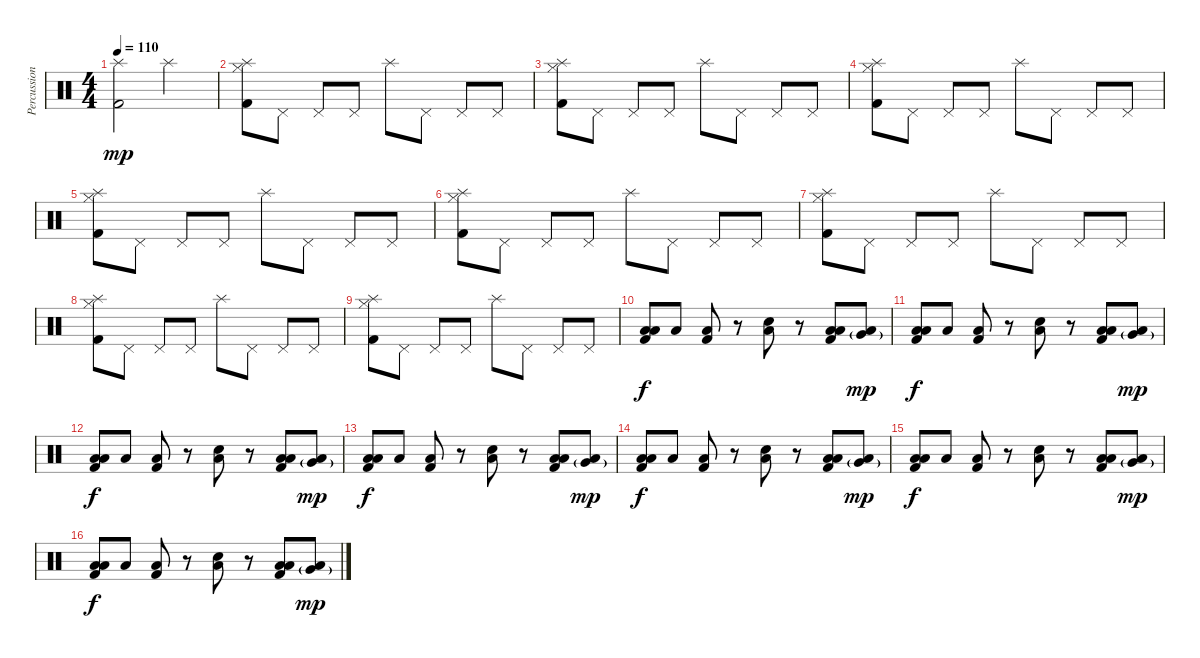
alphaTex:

\track ("Percussions" "Percussion") {instrument percussion}
\staff {score}
\articulation defaults
\ts (4 4)
\tempo 110
\clef neutral
\ks c
("Splash (hit)" "Kick (hit) 2").2{dy mp} "Splash (hit)".2 |
("Splash (hit)" "Hi-Hat (closed)" "Kick (hit) 2").8 "Pedal Hi-Hat (hit)".8 "Pedal Hi-Hat (hit)".8 "Pedal Hi-Hat (hit)".8 "Splash (hit)".8 "Pedal Hi-Hat (hit)".8 "Pedal Hi-Hat (hit)".8 "Pedal Hi-Hat (hit)".8 |
("Splash (hit)" "Hi-Hat (closed)" "Kick (hit) 2").8 "Pedal Hi-Hat (hit)".8 "Pedal Hi-Hat (hit)".8 "Pedal Hi-Hat (hit)".8 "Splash (hit)".8 "Pedal Hi-Hat (hit)".8 "Pedal Hi-Hat (hit)".8 "Pedal Hi-Hat (hit)".8 |
("Splash (hit)" "Hi-Hat (closed)" "Kick (hit) 2").8 "Pedal Hi-Hat (hit)".8 "Pedal Hi-Hat (hit)".8 "Pedal Hi-Hat (hit)".8 "Splash (hit)".8 "Pedal Hi-Hat (hit)".8 "Pedal Hi-Hat (hit)".8 "Pedal Hi-Hat (hit)".8 |
("Splash (hit)" "Hi-Hat (closed)" "Kick (hit) 2").8 "Pedal Hi-Hat (hit)".8 "Pedal Hi-Hat (hit)".8 "Pedal Hi-Hat (hit)".8 "Splash (hit)".8 "Pedal Hi-Hat (hit)".8 "Pedal Hi-Hat (hit)".8 "Pedal Hi-Hat (hit)".8 |
("Splash (hit)" "Hi-Hat (closed)" "Kick (hit) 2").8 "Pedal Hi-Hat (hit)".8 "Pedal Hi-Hat (hit)".8 "Pedal Hi-Hat (hit)".8 "Splash (hit)".8 "Pedal Hi-Hat (hit)".8 "Pedal Hi-Hat (hit)".8 "Pedal Hi-Hat (hit)".8 |
("Splash (hit)" "Hi-Hat (closed)" "Kick (hit) 2").8 "Pedal Hi-Hat (hit)".8 "Pedal Hi-Hat (hit)".8 "Pedal Hi-Hat (hit)".8 "Splash (hit)".8 "Pedal Hi-Hat (hit)".8 "Pedal Hi-Hat (hit)".8 "Pedal Hi-Hat (hit)".8 |
("Splash (hit)" "Hi-Hat (closed)" "Kick (hit) 2").8 "Pedal Hi-Hat (hit)".8 "Pedal Hi-Hat (hit)".8 "Pedal Hi-Hat (hit)".8 "Splash (hit)".8 "Pedal Hi-Hat (hit)".8 "Pedal Hi-Hat (hit)".8 "Pedal Hi-Hat (hit)".8 |
("Splash (hit)" "Hi-Hat (closed)" "Kick (hit) 2").8 "Pedal Hi-Hat (hit)".8 "Pedal Hi-Hat (hit)".8 "Pedal Hi-Hat (hit)".8 "Splash (hit)".8 "Pedal Hi-Hat (hit)".8 "Pedal Hi-Hat (hit)".8 "Pedal Hi-Hat (hit)".8 |
("Low Tom (hit)" "Low Floor Tom (hit)" "Kick (hit) 2").8{dy f} "Low Floor Tom (hit)".8 ("Low Tom (hit)" "Kick (hit) 2").8 r.8 ("Low Floor Tom (hit)" "Snare (hit) 2").8 r.8 ("Low Tom (hit)" "Low Floor Tom (hit)" "Kick (hit) 2").8 ("Very Low Tom (hit)"{g} "Low Floor Tom (hit)").8{dy mp} |
("Low Tom (hit)" "Low Floor Tom (hit)" "Kick (hit) 2").8{dy f} "Low Floor Tom (hit)".8 ("Low Tom (hit)" "Kick (hit) 2").8 r.8 ("Low Floor Tom (hit)" "Snare (hit) 2").8 r.8 ("Low Tom (hit)" "Low Floor Tom (hit)" "Kick (hit) 2").8 ("Very Low Tom (hit)"{g} "Low Floor Tom (hit)").8{dy mp} |
("Low Tom (hit)" "Low Floor Tom (hit)" "Kick (hit) 2").8{dy f} "Low Floor Tom (hit)".8 ("Low Tom (hit)" "Kick (hit) 2").8 r.8 ("Low Floor Tom (hit)" "Snare (hit) 2").8 r.8 ("Low Tom (hit)" "Low Floor Tom (hit)" "Kick (hit) 2").8 ("Very Low Tom (hit)"{g} "Low Floor Tom (hit)").8{dy mp} |
("Low Tom (hit)" "Low Floor Tom (hit)" "Kick (hit) 2").8{dy f} "Low Floor Tom (hit)".8 ("Low Tom (hit)" "Kick (hit) 2").8 r.8 ("Low Floor Tom (hit)" "Snare (hit) 2").8 r.8 ("Low Tom (hit)" "Low Floor Tom (hit)" "Kick (hit) 2").8 ("Very Low Tom (hit)"{g} "Low Floor Tom (hit)").8{dy mp} |
("Low Tom (hit)" "Low Floor Tom (hit)" "Kick (hit) 2").8{dy f} "Low Floor Tom (hit)".8 ("Low Tom (hit)" "Kick (hit) 2").8 r.8 ("Low Floor Tom (hit)" "Snare (hit) 2").8 r.8 ("Low Tom (hit)" "Low Floor Tom (hit)" "Kick (hit) 2").8 ("Very Low Tom (hit)"{g} "Low Floor Tom (hit)").8{dy mp} |
("Low Tom (hit)" "Low Floor Tom (hit)" "Kick (hit) 2").8{dy f} "Low Floor Tom (hit)".8 ("Low Tom (hit)" "Kick (hit) 2").8 r.8 ("Low Floor Tom (hit)" "Snare (hit) 2").8 r.8 ("Low Tom (hit)" "Low Floor Tom (hit)" "Kick (hit) 2").8 ("Very Low Tom (hit)"{g} "Low Floor Tom (hit)").8{dy mp} |
("Low Tom (hit)" "Low Floor Tom (hit)" "Kick (hit) 2").8{dy f} "Low Floor Tom (hit)".8 ("Low Tom (hit)" "Kick (hit) 2").8 r.8 ("Low Floor Tom (hit)" "Snare (hit) 2").8 r.8 ("Low Tom (hit)" "Low Floor Tom (hit)" "Kick (hit) 2").8 ("Very Low Tom (hit)"{g} "Low Floor Tom (hit)").8{dy mp}
